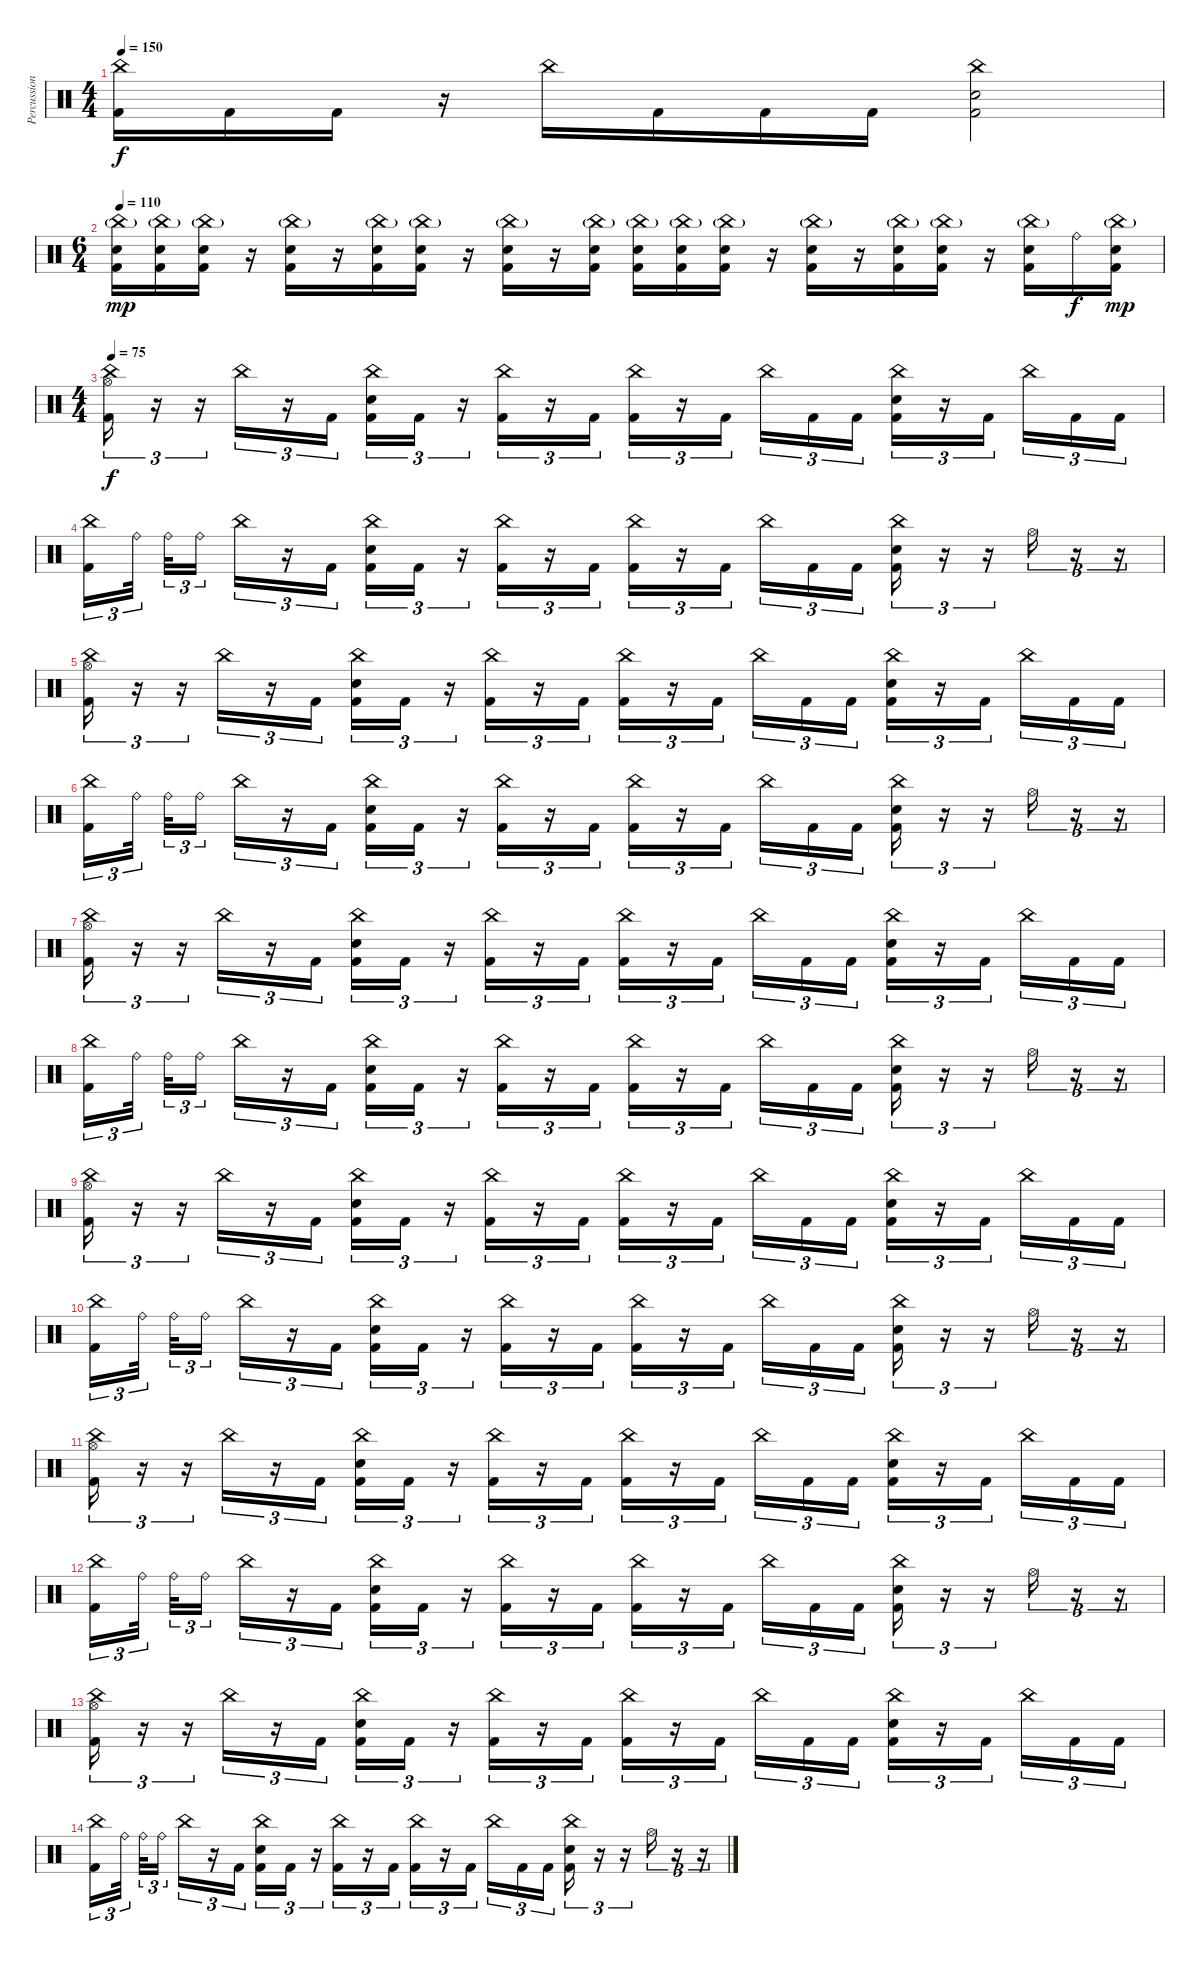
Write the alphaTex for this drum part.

\track ("Percussion" "Percussion") {instrument percussion}
\staff {score}
\articulation defaults
\ts (4 4)
\tempo 150
\clef neutral
\ks c
("China (hit)" "Kick (hit) 2").16{dy f} "Kick (hit) 2".16 "Kick (hit) 2".16 r.16 "China (hit)".16 "Kick (hit) 2".16 "Kick (hit) 2".16 "Kick (hit) 2".16 ("China (hit)" "Snare (hit) 2" "Kick (hit) 2").2 |
\ts (6 4)
\tempo 110
("China (hit)"{g} "Snare (hit) 2" "Kick (hit) 2").16{dy mp} ("China (hit)"{g} "Snare (hit) 2" "Kick (hit) 2").16 ("China (hit)"{g} "Snare (hit) 2" "Kick (hit) 2").16 r.16 ("China (hit)"{g} "Snare (hit) 2" "Kick (hit) 2").16 r.16 ("China (hit)"{g} "Snare (hit) 2" "Kick (hit) 2").16 ("China (hit)"{g} "Snare (hit) 2" "Kick (hit) 2").16 r.16 ("China (hit)"{g} "Snare (hit) 2" "Kick (hit) 2").16 r.16 ("China (hit)"{g} "Snare (hit) 2" "Kick (hit) 2").16 ("China (hit)"{g} "Snare (hit) 2" "Kick (hit) 2").16 ("China (hit)"{g} "Snare (hit) 2" "Kick (hit) 2").16 ("China (hit)"{g} "Snare (hit) 2" "Kick (hit) 2").16 r.16 ("China (hit)"{g} "Snare (hit) 2" "Kick (hit) 2").16 r.16 ("China (hit)"{g} "Snare (hit) 2" "Kick (hit) 2").16 ("China (hit)"{g} "Snare (hit) 2" "Kick (hit) 2").16 r.16 ("China (hit)"{g} "Snare (hit) 2" "Kick (hit) 2").16 "Ride (bell)".16{dy f} ("China (hit)"{g} "Snare (hit) 2" "Kick (hit) 2").16{dy mp} |
\ts (4 4)
\tempo 75
("China (hit)" "Hi-Hat (open)" "Kick (hit) 2").16{tu (3 2) dy f} r.16{tu (3 2)} r.16{tu (3 2)} "China (hit)".16{tu (3 2)} r.16{tu (3 2)} "Kick (hit) 2".16{tu (3 2)} ("China (hit)" "Snare (hit) 2" "Kick (hit) 2").16{tu (3 2)} "Kick (hit) 2".16{tu (3 2)} r.16{tu (3 2)} ("China (hit)" "Kick (hit) 2").16{tu (3 2)} r.16{tu (3 2)} "Kick (hit) 2".16{tu (3 2)} ("China (hit)" "Kick (hit) 2").16{tu (3 2)} r.16{tu (3 2)} "Kick (hit) 2".16{tu (3 2)} "China (hit)".16{tu (3 2)} "Kick (hit) 2".16{tu (3 2)} "Kick (hit) 2".16{tu (3 2)} ("China (hit)" "Snare (hit) 2" "Kick (hit) 2").16{tu (3 2)} r.16{tu (3 2)} "Kick (hit) 2".16{tu (3 2)} "China (hit)".16{tu (3 2)} "Kick (hit) 2".16{tu (3 2)} "Kick (hit) 2".16{tu (3 2)} |
("China (hit)" "Kick (hit) 2").16{tu (3 2)} "Ride (bell)".32{tu (3 2)} "Ride (bell)".32{tu (3 2)} "Ride (bell)".16{tu (3 2)} "China (hit)".16{tu (3 2)} r.16{tu (3 2)} "Kick (hit) 2".16{tu (3 2)} ("China (hit)" "Snare (hit) 2" "Kick (hit) 2").16{tu (3 2)} "Kick (hit) 2".16{tu (3 2)} r.16{tu (3 2)} ("China (hit)" "Kick (hit) 2").16{tu (3 2)} r.16{tu (3 2)} "Kick (hit) 2".16{tu (3 2)} ("China (hit)" "Kick (hit) 2").16{tu (3 2)} r.16{tu (3 2)} "Kick (hit) 2".16{tu (3 2)} "China (hit)".16{tu (3 2)} "Kick (hit) 2".16{tu (3 2)} "Kick (hit) 2".16{tu (3 2)} ("China (hit)" "Snare (hit) 2" "Kick (hit) 2").16{tu (3 2)} r.16{tu (3 2)} r.16{tu (3 2)} "Hi-Hat (open)".16{tu (3 2)} r.16{tu (3 2)} r.16{tu (3 2)} |
("China (hit)" "Hi-Hat (open)" "Kick (hit) 2").16{tu (3 2)} r.16{tu (3 2)} r.16{tu (3 2)} "China (hit)".16{tu (3 2)} r.16{tu (3 2)} "Kick (hit) 2".16{tu (3 2)} ("China (hit)" "Snare (hit) 2" "Kick (hit) 2").16{tu (3 2)} "Kick (hit) 2".16{tu (3 2)} r.16{tu (3 2)} ("China (hit)" "Kick (hit) 2").16{tu (3 2)} r.16{tu (3 2)} "Kick (hit) 2".16{tu (3 2)} ("China (hit)" "Kick (hit) 2").16{tu (3 2)} r.16{tu (3 2)} "Kick (hit) 2".16{tu (3 2)} "China (hit)".16{tu (3 2)} "Kick (hit) 2".16{tu (3 2)} "Kick (hit) 2".16{tu (3 2)} ("China (hit)" "Snare (hit) 2" "Kick (hit) 2").16{tu (3 2)} r.16{tu (3 2)} "Kick (hit) 2".16{tu (3 2)} "China (hit)".16{tu (3 2)} "Kick (hit) 2".16{tu (3 2)} "Kick (hit) 2".16{tu (3 2)} |
("China (hit)" "Kick (hit) 2").16{tu (3 2)} "Ride (bell)".32{tu (3 2)} "Ride (bell)".32{tu (3 2)} "Ride (bell)".16{tu (3 2)} "China (hit)".16{tu (3 2)} r.16{tu (3 2)} "Kick (hit) 2".16{tu (3 2)} ("China (hit)" "Snare (hit) 2" "Kick (hit) 2").16{tu (3 2)} "Kick (hit) 2".16{tu (3 2)} r.16{tu (3 2)} ("China (hit)" "Kick (hit) 2").16{tu (3 2)} r.16{tu (3 2)} "Kick (hit) 2".16{tu (3 2)} ("China (hit)" "Kick (hit) 2").16{tu (3 2)} r.16{tu (3 2)} "Kick (hit) 2".16{tu (3 2)} "China (hit)".16{tu (3 2)} "Kick (hit) 2".16{tu (3 2)} "Kick (hit) 2".16{tu (3 2)} ("China (hit)" "Snare (hit) 2" "Kick (hit) 2").16{tu (3 2)} r.16{tu (3 2)} r.16{tu (3 2)} "Hi-Hat (open)".16{tu (3 2)} r.16{tu (3 2)} r.16{tu (3 2)} |
("China (hit)" "Hi-Hat (open)" "Kick (hit) 2").16{tu (3 2) volume 8} r.16{tu (3 2)} r.16{tu (3 2)} "China (hit)".16{tu (3 2)} r.16{tu (3 2)} "Kick (hit) 2".16{tu (3 2)} ("China (hit)" "Snare (hit) 2" "Kick (hit) 2").16{tu (3 2)} "Kick (hit) 2".16{tu (3 2)} r.16{tu (3 2)} ("China (hit)" "Kick (hit) 2").16{tu (3 2)} r.16{tu (3 2)} "Kick (hit) 2".16{tu (3 2)} ("China (hit)" "Kick (hit) 2").16{tu (3 2)} r.16{tu (3 2)} "Kick (hit) 2".16{tu (3 2)} "China (hit)".16{tu (3 2)} "Kick (hit) 2".16{tu (3 2)} "Kick (hit) 2".16{tu (3 2)} ("China (hit)" "Snare (hit) 2" "Kick (hit) 2").16{tu (3 2)} r.16{tu (3 2)} "Kick (hit) 2".16{tu (3 2)} "China (hit)".16{tu (3 2)} "Kick (hit) 2".16{tu (3 2)} "Kick (hit) 2".16{tu (3 2)} |
("China (hit)" "Kick (hit) 2").16{tu (3 2)} "Ride (bell)".32{tu (3 2)} "Ride (bell)".32{tu (3 2)} "Ride (bell)".16{tu (3 2)} "China (hit)".16{tu (3 2)} r.16{tu (3 2)} "Kick (hit) 2".16{tu (3 2)} ("China (hit)" "Snare (hit) 2" "Kick (hit) 2").16{tu (3 2)} "Kick (hit) 2".16{tu (3 2)} r.16{tu (3 2)} ("China (hit)" "Kick (hit) 2").16{tu (3 2)} r.16{tu (3 2)} "Kick (hit) 2".16{tu (3 2)} ("China (hit)" "Kick (hit) 2").16{tu (3 2)} r.16{tu (3 2)} "Kick (hit) 2".16{tu (3 2)} "China (hit)".16{tu (3 2)} "Kick (hit) 2".16{tu (3 2)} "Kick (hit) 2".16{tu (3 2)} ("China (hit)" "Snare (hit) 2" "Kick (hit) 2").16{tu (3 2)} r.16{tu (3 2)} r.16{tu (3 2)} "Hi-Hat (open)".16{tu (3 2)} r.16{tu (3 2)} r.16{tu (3 2)} |
("China (hit)" "Hi-Hat (open)" "Kick (hit) 2").16{tu (3 2)} r.16{tu (3 2)} r.16{tu (3 2)} "China (hit)".16{tu (3 2)} r.16{tu (3 2)} "Kick (hit) 2".16{tu (3 2)} ("China (hit)" "Snare (hit) 2" "Kick (hit) 2").16{tu (3 2)} "Kick (hit) 2".16{tu (3 2)} r.16{tu (3 2)} ("China (hit)" "Kick (hit) 2").16{tu (3 2)} r.16{tu (3 2)} "Kick (hit) 2".16{tu (3 2)} ("China (hit)" "Kick (hit) 2").16{tu (3 2)} r.16{tu (3 2)} "Kick (hit) 2".16{tu (3 2)} "China (hit)".16{tu (3 2)} "Kick (hit) 2".16{tu (3 2)} "Kick (hit) 2".16{tu (3 2)} ("China (hit)" "Snare (hit) 2" "Kick (hit) 2").16{tu (3 2)} r.16{tu (3 2)} "Kick (hit) 2".16{tu (3 2)} "China (hit)".16{tu (3 2)} "Kick (hit) 2".16{tu (3 2)} "Kick (hit) 2".16{tu (3 2)} |
("China (hit)" "Kick (hit) 2").16{tu (3 2)} "Ride (bell)".32{tu (3 2)} "Ride (bell)".32{tu (3 2)} "Ride (bell)".16{tu (3 2)} "China (hit)".16{tu (3 2)} r.16{tu (3 2)} "Kick (hit) 2".16{tu (3 2)} ("China (hit)" "Snare (hit) 2" "Kick (hit) 2").16{tu (3 2)} "Kick (hit) 2".16{tu (3 2)} r.16{tu (3 2)} ("China (hit)" "Kick (hit) 2").16{tu (3 2)} r.16{tu (3 2)} "Kick (hit) 2".16{tu (3 2)} ("China (hit)" "Kick (hit) 2").16{tu (3 2)} r.16{tu (3 2)} "Kick (hit) 2".16{tu (3 2)} "China (hit)".16{tu (3 2)} "Kick (hit) 2".16{tu (3 2)} "Kick (hit) 2".16{tu (3 2)} ("China (hit)" "Snare (hit) 2" "Kick (hit) 2").16{tu (3 2)} r.16{tu (3 2)} r.16{tu (3 2)} "Hi-Hat (open)".16{tu (3 2)} r.16{tu (3 2)} r.16{tu (3 2)} |
("China (hit)" "Hi-Hat (open)" "Kick (hit) 2").16{tu (3 2) volume 0} r.16{tu (3 2)} r.16{tu (3 2)} "China (hit)".16{tu (3 2)} r.16{tu (3 2)} "Kick (hit) 2".16{tu (3 2)} ("China (hit)" "Snare (hit) 2" "Kick (hit) 2").16{tu (3 2)} "Kick (hit) 2".16{tu (3 2)} r.16{tu (3 2)} ("China (hit)" "Kick (hit) 2").16{tu (3 2)} r.16{tu (3 2)} "Kick (hit) 2".16{tu (3 2)} ("China (hit)" "Kick (hit) 2").16{tu (3 2)} r.16{tu (3 2)} "Kick (hit) 2".16{tu (3 2)} "China (hit)".16{tu (3 2)} "Kick (hit) 2".16{tu (3 2)} "Kick (hit) 2".16{tu (3 2)} ("China (hit)" "Snare (hit) 2" "Kick (hit) 2").16{tu (3 2)} r.16{tu (3 2)} "Kick (hit) 2".16{tu (3 2)} "China (hit)".16{tu (3 2)} "Kick (hit) 2".16{tu (3 2)} "Kick (hit) 2".16{tu (3 2)} |
("China (hit)" "Kick (hit) 2").16{tu (3 2)} "Ride (bell)".32{tu (3 2)} "Ride (bell)".32{tu (3 2)} "Ride (bell)".16{tu (3 2)} "China (hit)".16{tu (3 2)} r.16{tu (3 2)} "Kick (hit) 2".16{tu (3 2)} ("China (hit)" "Snare (hit) 2" "Kick (hit) 2").16{tu (3 2)} "Kick (hit) 2".16{tu (3 2)} r.16{tu (3 2)} ("China (hit)" "Kick (hit) 2").16{tu (3 2)} r.16{tu (3 2)} "Kick (hit) 2".16{tu (3 2)} ("China (hit)" "Kick (hit) 2").16{tu (3 2)} r.16{tu (3 2)} "Kick (hit) 2".16{tu (3 2)} "China (hit)".16{tu (3 2)} "Kick (hit) 2".16{tu (3 2)} "Kick (hit) 2".16{tu (3 2)} ("China (hit)" "Snare (hit) 2" "Kick (hit) 2").16{tu (3 2)} r.16{tu (3 2)} r.16{tu (3 2)} "Hi-Hat (open)".16{tu (3 2)} r.16{tu (3 2)} r.16{tu (3 2)} |
("China (hit)" "Hi-Hat (open)" "Kick (hit) 2").16{tu (3 2)} r.16{tu (3 2)} r.16{tu (3 2)} "China (hit)".16{tu (3 2)} r.16{tu (3 2)} "Kick (hit) 2".16{tu (3 2)} ("China (hit)" "Snare (hit) 2" "Kick (hit) 2").16{tu (3 2)} "Kick (hit) 2".16{tu (3 2)} r.16{tu (3 2)} ("China (hit)" "Kick (hit) 2").16{tu (3 2)} r.16{tu (3 2)} "Kick (hit) 2".16{tu (3 2)} ("China (hit)" "Kick (hit) 2").16{tu (3 2)} r.16{tu (3 2)} "Kick (hit) 2".16{tu (3 2)} "China (hit)".16{tu (3 2)} "Kick (hit) 2".16{tu (3 2)} "Kick (hit) 2".16{tu (3 2)} ("China (hit)" "Snare (hit) 2" "Kick (hit) 2").16{tu (3 2)} r.16{tu (3 2)} "Kick (hit) 2".16{tu (3 2)} "China (hit)".16{tu (3 2)} "Kick (hit) 2".16{tu (3 2)} "Kick (hit) 2".16{tu (3 2)} |
("China (hit)" "Kick (hit) 2").16{tu (3 2)} "Ride (bell)".32{tu (3 2)} "Ride (bell)".32{tu (3 2)} "Ride (bell)".16{tu (3 2)} "China (hit)".16{tu (3 2)} r.16{tu (3 2)} "Kick (hit) 2".16{tu (3 2)} ("China (hit)" "Snare (hit) 2" "Kick (hit) 2").16{tu (3 2)} "Kick (hit) 2".16{tu (3 2)} r.16{tu (3 2)} ("China (hit)" "Kick (hit) 2").16{tu (3 2)} r.16{tu (3 2)} "Kick (hit) 2".16{tu (3 2)} ("China (hit)" "Kick (hit) 2").16{tu (3 2)} r.16{tu (3 2)} "Kick (hit) 2".16{tu (3 2)} "China (hit)".16{tu (3 2)} "Kick (hit) 2".16{tu (3 2)} "Kick (hit) 2".16{tu (3 2)} ("China (hit)" "Snare (hit) 2" "Kick (hit) 2").16{tu (3 2)} r.16{tu (3 2)} r.16{tu (3 2)} "Hi-Hat (open)".16{tu (3 2)} r.16{tu (3 2)} r.16{tu (3 2)}
